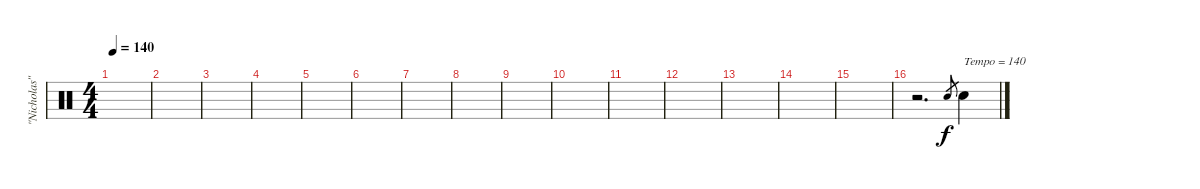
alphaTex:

\track ("\"Nicholas\"" "\"Nicholas\"") {instrument percussion}
\staff {score}
\articulation defaults
\ts (4 4)
\tempo 140
\clef neutral
\ks c
|
|
|
|
|
|
|
|
|
|
|
|
|
|
|
r.2{d} "Snare (hit) 2".8{gr} "Snare (hit) 2".4{txt "Tempo = 140"}
